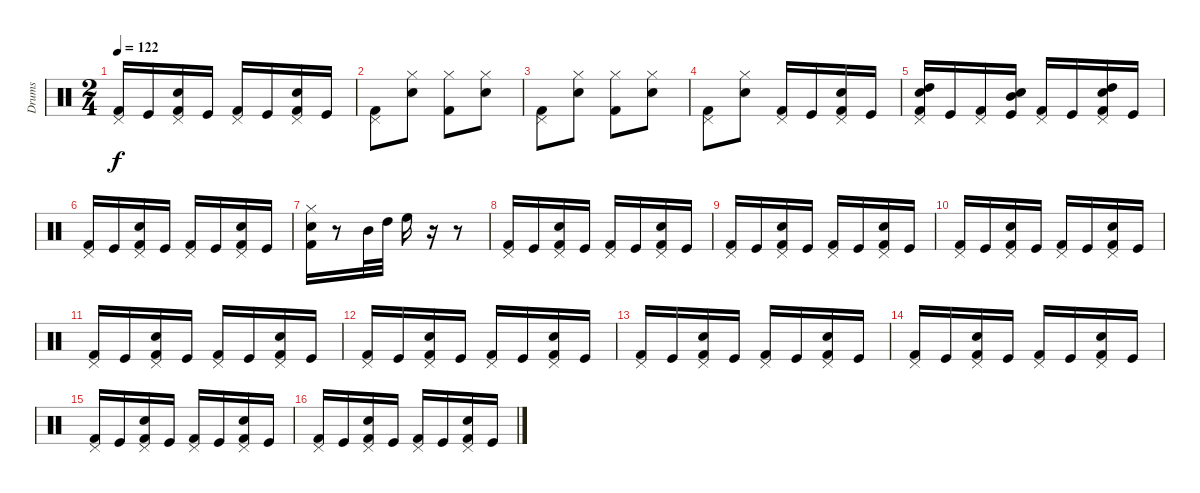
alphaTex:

\track ("Drums" "Drums") {instrument percussion}
\staff {score}
\articulation defaults
\ts (2 4)
\tempo 122
\clef neutral
\ks c
("Pedal Hi-Hat (hit)" "Kick (hit) 2").16{dy f} "Kick (hit)".16 ("Pedal Hi-Hat (hit)" "Snare (hit) 2" "Kick (hit) 2").16 "Kick (hit)".16 ("Pedal Hi-Hat (hit)" "Kick (hit) 2").16 "Kick (hit)".16 ("Pedal Hi-Hat (hit)" "Snare (hit) 2" "Kick (hit) 2").16 "Kick (hit)".16 |
("Pedal Hi-Hat (hit)" "Kick (hit) 2").8 ("Hi-Hat (closed)" "Snare (hit) 2").8 ("Hi-Hat (closed)" "Kick (hit) 2").8 ("Hi-Hat (closed)" "Snare (hit) 2").8 |
("Pedal Hi-Hat (hit)" "Kick (hit) 2").8 ("Hi-Hat (closed)" "Snare (hit) 2").8 ("Hi-Hat (closed)" "Kick (hit) 2").8 ("Hi-Hat (closed)" "Snare (hit) 2").8 |
("Pedal Hi-Hat (hit)" "Kick (hit) 2").8 ("Hi-Hat (closed)" "Snare (hit) 2").8 ("Pedal Hi-Hat (hit)" "Kick (hit) 2").16 "Kick (hit)".16 ("Pedal Hi-Hat (hit)" "Snare (hit) 2" "Kick (hit) 2").16 "Kick (hit)".16 |
("Pedal Hi-Hat (hit)" "High Tom (hit)" "Snare (hit) 2" "Kick (hit) 2").16 "Kick (hit)".16 ("Pedal Hi-Hat (hit)" "Kick (hit) 2").16 ("Mid Tom (hit)" "Snare (hit) 2" "Kick (hit)").16 ("Pedal Hi-Hat (hit)" "Kick (hit) 2").16 "Kick (hit)".16 ("Pedal Hi-Hat (hit)" "High Tom (hit)" "Snare (hit) 2" "Kick (hit) 2").16 "Kick (hit)".16 |
("Pedal Hi-Hat (hit)" "Kick (hit) 2").16 "Kick (hit)".16 ("Pedal Hi-Hat (hit)" "Snare (hit) 2" "Kick (hit) 2").16 "Kick (hit)".16 ("Pedal Hi-Hat (hit)" "Kick (hit) 2").16 "Kick (hit)".16 ("Pedal Hi-Hat (hit)" "Snare (hit) 2" "Kick (hit) 2").16 "Kick (hit)".16 |
("Hi-Hat (closed)" "Snare (hit) 2" "Kick (hit) 2").16 r.8 "Mid Tom (hit)".32 "High Tom (hit)".32 "High Floor Tom (hit)".16 r.16 r.8 |
("Pedal Hi-Hat (hit)" "Kick (hit) 2").16 "Kick (hit)".16 ("Pedal Hi-Hat (hit)" "Snare (hit) 2" "Kick (hit) 2").16 "Kick (hit)".16 ("Pedal Hi-Hat (hit)" "Kick (hit) 2").16 "Kick (hit)".16 ("Pedal Hi-Hat (hit)" "Snare (hit) 2" "Kick (hit) 2").16 "Kick (hit)".16 |
("Pedal Hi-Hat (hit)" "Kick (hit) 2").16 "Kick (hit)".16 ("Pedal Hi-Hat (hit)" "Snare (hit) 2" "Kick (hit) 2").16 "Kick (hit)".16 ("Pedal Hi-Hat (hit)" "Kick (hit) 2").16 "Kick (hit)".16 ("Pedal Hi-Hat (hit)" "Snare (hit) 2" "Kick (hit) 2").16 "Kick (hit)".16 |
("Pedal Hi-Hat (hit)" "Kick (hit) 2").16 "Kick (hit)".16 ("Pedal Hi-Hat (hit)" "Snare (hit) 2" "Kick (hit) 2").16 "Kick (hit)".16 ("Pedal Hi-Hat (hit)" "Kick (hit) 2").16 "Kick (hit)".16 ("Pedal Hi-Hat (hit)" "Snare (hit) 2" "Kick (hit) 2").16 "Kick (hit)".16 |
("Pedal Hi-Hat (hit)" "Kick (hit) 2").16 "Kick (hit)".16 ("Pedal Hi-Hat (hit)" "Snare (hit) 2" "Kick (hit) 2").16 "Kick (hit)".16 ("Pedal Hi-Hat (hit)" "Kick (hit) 2").16 "Kick (hit)".16 ("Pedal Hi-Hat (hit)" "Snare (hit) 2" "Kick (hit) 2").16 "Kick (hit)".16 |
("Pedal Hi-Hat (hit)" "Kick (hit) 2").16 "Kick (hit)".16 ("Pedal Hi-Hat (hit)" "Snare (hit) 2" "Kick (hit) 2").16 "Kick (hit)".16 ("Pedal Hi-Hat (hit)" "Kick (hit) 2").16 "Kick (hit)".16 ("Pedal Hi-Hat (hit)" "Snare (hit) 2" "Kick (hit) 2").16 "Kick (hit)".16 |
("Pedal Hi-Hat (hit)" "Kick (hit) 2").16 "Kick (hit)".16 ("Pedal Hi-Hat (hit)" "Snare (hit) 2" "Kick (hit) 2").16 "Kick (hit)".16 ("Pedal Hi-Hat (hit)" "Kick (hit) 2").16 "Kick (hit)".16 ("Pedal Hi-Hat (hit)" "Snare (hit) 2" "Kick (hit) 2").16 "Kick (hit)".16 |
("Pedal Hi-Hat (hit)" "Kick (hit) 2").16 "Kick (hit)".16 ("Pedal Hi-Hat (hit)" "Snare (hit) 2" "Kick (hit) 2").16 "Kick (hit)".16 ("Pedal Hi-Hat (hit)" "Kick (hit) 2").16 "Kick (hit)".16 ("Pedal Hi-Hat (hit)" "Snare (hit) 2" "Kick (hit) 2").16 "Kick (hit)".16 |
("Pedal Hi-Hat (hit)" "Kick (hit) 2").16 "Kick (hit)".16 ("Pedal Hi-Hat (hit)" "Snare (hit) 2" "Kick (hit) 2").16 "Kick (hit)".16 ("Pedal Hi-Hat (hit)" "Kick (hit) 2").16 "Kick (hit)".16 ("Pedal Hi-Hat (hit)" "Snare (hit) 2" "Kick (hit) 2").16 "Kick (hit)".16 |
("Pedal Hi-Hat (hit)" "Kick (hit) 2").16 "Kick (hit)".16 ("Pedal Hi-Hat (hit)" "Snare (hit) 2" "Kick (hit) 2").16 "Kick (hit)".16 ("Pedal Hi-Hat (hit)" "Kick (hit) 2").16 "Kick (hit)".16 ("Pedal Hi-Hat (hit)" "Snare (hit) 2" "Kick (hit) 2").16 "Kick (hit)".16
